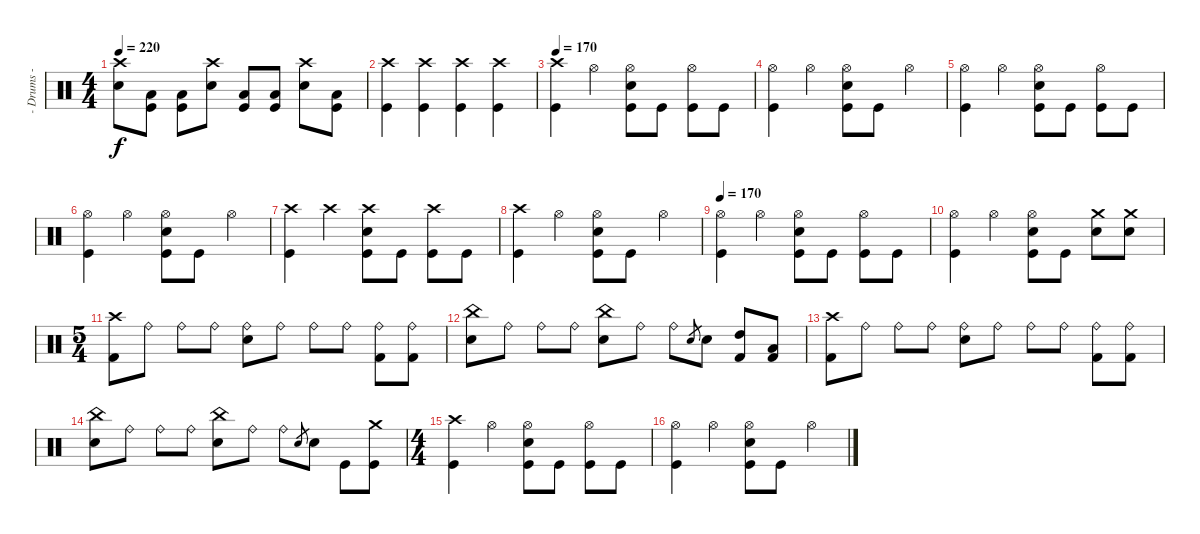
\track ("- Drums -" "- Drums -") {instrument percussion}
\staff {score}
\articulation defaults
\ts (4 4)
\tempo 220
\clef neutral
\ks c
("Crash high (hit)" "Electric Snare (hit)").8{dy f} ("Low Tom (hit)" "Kick (hit)").8 ("Low Tom (hit)" "Kick (hit)").8 ("Crash high (hit)" "Electric Snare (hit)").8 ("Low Tom (hit)" "Kick (hit)").8 ("Low Tom (hit)" "Kick (hit)").8 ("Crash high (hit)" "Electric Snare (hit)").8 ("Low Tom (hit)" "Kick (hit)").8 |
("Crash high (hit)" "Kick (hit)").4 ("Crash high (hit)" "Kick (hit)").4 ("Crash high (hit)" "Kick (hit)").4 ("Crash high (hit)" "Kick (hit)").4 |
\tempo 170
("Crash high (hit)" "Kick (hit)").4 "Hi-Hat (open)".4 ("Hi-Hat (open)" "Electric Snare (hit)" "Kick (hit)").8 "Kick (hit)".8 ("Hi-Hat (open)" "Kick (hit)").8 "Kick (hit)".8 |
("Hi-Hat (open)" "Kick (hit)").4 "Hi-Hat (open)".4 ("Hi-Hat (open)" "Electric Snare (hit)" "Kick (hit)").8 "Kick (hit)".8 "Hi-Hat (open)".4 |
("Hi-Hat (open)" "Kick (hit)").4 "Hi-Hat (open)".4 ("Hi-Hat (open)" "Electric Snare (hit)" "Kick (hit)").8 "Kick (hit)".8 ("Hi-Hat (open)" "Kick (hit)").8 "Kick (hit)".8 |
("Hi-Hat (open)" "Kick (hit)").4 "Hi-Hat (open)".4 ("Hi-Hat (open)" "Electric Snare (hit)" "Kick (hit)").8 "Kick (hit)".8 "Hi-Hat (open)".4 |
("Crash high (hit)" "Kick (hit)").4 "Crash high (hit)".4 ("Crash high (hit)" "Electric Snare (hit)" "Kick (hit)").8 "Kick (hit)".8 ("Crash high (hit)" "Kick (hit)").8 "Kick (hit)".8 |
("Crash high (hit)" "Kick (hit)").4 "Hi-Hat (open)".4 ("Hi-Hat (open)" "Electric Snare (hit)" "Kick (hit)").8 "Kick (hit)".8 "Hi-Hat (open)".4 |
\tempo 170
("Hi-Hat (open)" "Kick (hit)").4 "Hi-Hat (open)".4 ("Hi-Hat (open)" "Electric Snare (hit)" "Kick (hit)").8 "Kick (hit)".8 ("Hi-Hat (open)" "Kick (hit)").8 "Kick (hit)".8 |
("Hi-Hat (open)" "Kick (hit)").4 "Hi-Hat (open)".4 ("Hi-Hat (open)" "Electric Snare (hit)" "Kick (hit)").8 "Kick (hit)".8 ("Crash medium (hit)" "Electric Snare (hit)").8 ("Crash medium (hit)" "Electric Snare (hit)").8 |
\ts (5 4)
("Crash high (hit)" "Kick (hit) 2").8 "Ride (bell)".8 "Ride (bell)".8 "Ride (bell)".8 ("Ride (bell)" "Electric Snare (hit)").8 "Ride (bell)".8 "Ride (bell)".8 "Ride (bell)".8 ("Ride (bell)" "Kick (hit) 2").8 ("Ride (bell)" "Kick (hit) 2").8 |
("China (hit)" "Electric Snare (hit)").8 "Ride (bell)".8 "Ride (bell)".8 "Ride (bell)".8 ("China (hit)" "Electric Snare (hit)").8 "Ride (bell)".8 "Ride (bell)".8 "Electric Snare (hit)".8{gr} "Electric Snare (hit)".8 ("High Tom (hit)" "Kick (hit) 2").8 ("Low Tom (hit)" "Kick (hit) 2").8 |
("Crash high (hit)" "Kick (hit) 2").8 "Ride (bell)".8 "Ride (bell)".8 "Ride (bell)".8 ("Ride (bell)" "Electric Snare (hit)").8 "Ride (bell)".8 "Ride (bell)".8 "Ride (bell)".8 ("Ride (bell)" "Kick (hit) 2").8 ("Ride (bell)" "Kick (hit) 2").8 |
("China (hit)" "Electric Snare (hit)").8 "Ride (bell)".8 "Ride (bell)".8 "Ride (bell)".8 ("China (hit)" "Electric Snare (hit)").8 "Ride (bell)".8 "Ride (bell)".8 "Electric Snare (hit)".8{gr} "Electric Snare (hit)".8 "Kick (hit)".8 ("Crash medium (hit)" "Kick (hit)").8 |
\ts (4 4)
("Crash high (hit)" "Kick (hit)").4 "Hi-Hat (open)".4 ("Hi-Hat (open)" "Electric Snare (hit)" "Kick (hit)").8 "Kick (hit)".8 ("Hi-Hat (open)" "Kick (hit)").8 "Kick (hit)".8 |
("Hi-Hat (open)" "Kick (hit)").4 "Hi-Hat (open)".4 ("Hi-Hat (open)" "Electric Snare (hit)" "Kick (hit)").8 "Kick (hit)".8 "Hi-Hat (open)".4
